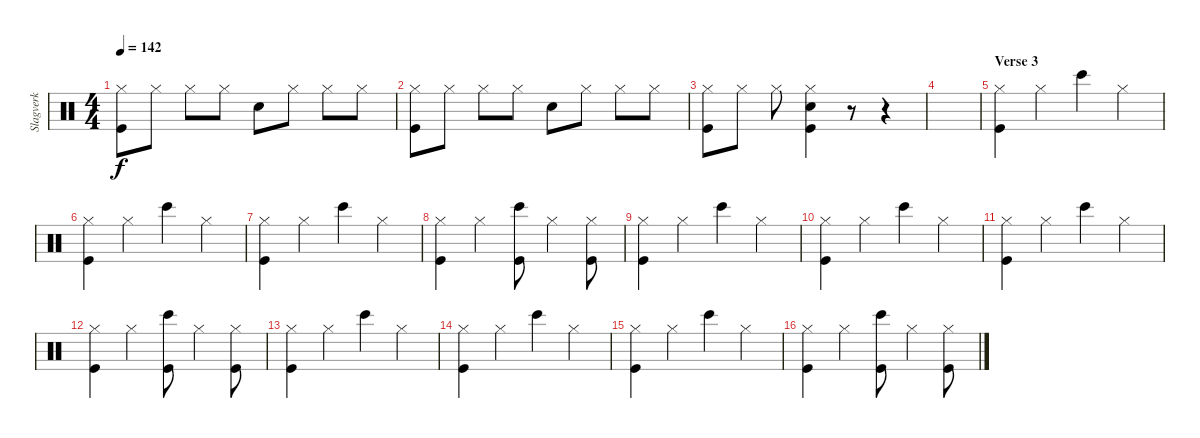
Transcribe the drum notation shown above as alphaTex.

\track ("Slagverk" "Slagverk") {instrument percussion}
\staff {score}
\articulation defaults
\ts (4 4)
\tempo 142
\clef neutral
\ks c
("Hi-Hat (closed)" "Kick (hit)").8{dy f} "Hi-Hat (closed)".8 "Hi-Hat (closed)".8 "Hi-Hat (closed)".8 "Snare (hit) 2".8 "Hi-Hat (closed)".8 "Hi-Hat (closed)".8 "Hi-Hat (closed)".8 |
("Hi-Hat (closed)" "Kick (hit)").8 "Hi-Hat (closed)".8 "Hi-Hat (closed)".8 "Hi-Hat (closed)".8 "Snare (hit) 2".8 "Hi-Hat (closed)".8 "Hi-Hat (closed)".8 "Hi-Hat (closed)".8 |
("Hi-Hat (closed)" "Kick (hit)").8 "Hi-Hat (closed)".8 "Hi-Hat (closed)".8 ("Hi-Hat (closed)" "Kick (hit)" "Electric Snare (hit)").4 r.8 r.4 |
|
\section ("" "Verse 3")
("Hi-Hat (closed)" "Kick (hit)").4 "Hi-Hat (closed)".4 "Bongo High (hit)".4 "Hi-Hat (closed)".4 |
("Hi-Hat (closed)" "Kick (hit)").4 "Hi-Hat (closed)".4 "Bongo High (hit)".4 "Hi-Hat (closed)".4 |
("Hi-Hat (closed)" "Kick (hit)").4 "Hi-Hat (closed)".4 "Bongo High (hit)".4 "Hi-Hat (closed)".4 |
("Hi-Hat (closed)" "Kick (hit)").4 "Hi-Hat (closed)".4 ("Bongo High (hit)" "Kick (hit)").8 "Hi-Hat (closed)".4 ("Hi-Hat (closed)" "Kick (hit)").8 |
("Hi-Hat (closed)" "Kick (hit)").4 "Hi-Hat (closed)".4 "Bongo High (hit)".4 "Hi-Hat (closed)".4 |
("Hi-Hat (closed)" "Kick (hit)").4 "Hi-Hat (closed)".4 "Bongo High (hit)".4 "Hi-Hat (closed)".4 |
("Hi-Hat (closed)" "Kick (hit)").4 "Hi-Hat (closed)".4 "Bongo High (hit)".4 "Hi-Hat (closed)".4 |
("Hi-Hat (closed)" "Kick (hit)").4 "Hi-Hat (closed)".4 ("Bongo High (hit)" "Kick (hit)").8 "Hi-Hat (closed)".4 ("Hi-Hat (closed)" "Kick (hit)").8 |
("Hi-Hat (closed)" "Kick (hit)").4 "Hi-Hat (closed)".4 "Bongo High (hit)".4 "Hi-Hat (closed)".4 |
("Hi-Hat (closed)" "Kick (hit)").4 "Hi-Hat (closed)".4 "Bongo High (hit)".4 "Hi-Hat (closed)".4 |
("Hi-Hat (closed)" "Kick (hit)").4 "Hi-Hat (closed)".4 "Bongo High (hit)".4 "Hi-Hat (closed)".4 |
("Hi-Hat (closed)" "Kick (hit)").4 "Hi-Hat (closed)".4 ("Bongo High (hit)" "Kick (hit)").8 "Hi-Hat (closed)".4 ("Hi-Hat (closed)" "Kick (hit)").8
